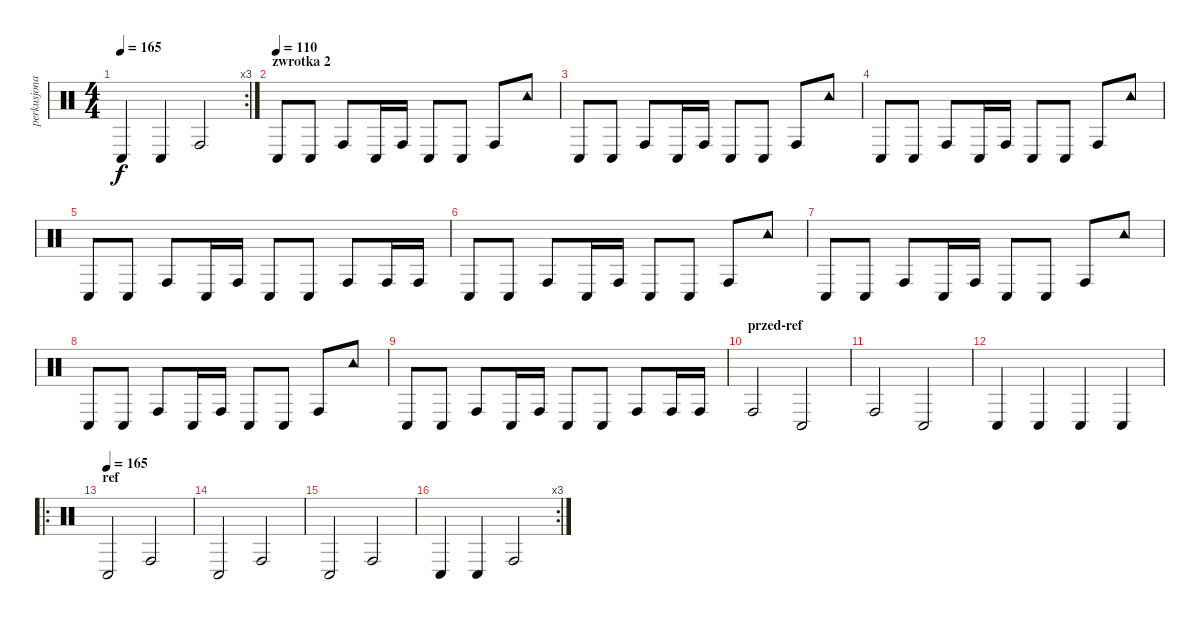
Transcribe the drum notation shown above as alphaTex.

\track ("perkusjonalia" "perkusjona") {instrument percussion}
\staff {score}
\articulation defaults
\rc 3
\ts (4 4)
\tempo 165
\clef neutral
\ks c "Conga low (hit)".4{dy f} "Conga low (hit)".4 "Conga high (hit)".2
|
\section ("" "zwrotka 2")
\tempo (110)
"Conga low (hit)".8 "Conga low (hit)".8 "Conga high (hit)".8 "Conga low (hit)".16 "Conga high (hit)".16 "Conga low (hit)".8 "Conga low (hit)".8 "Conga high (hit)".8 "Tambourine (hit)".8 |
"Conga low (hit)".8 "Conga low (hit)".8 "Conga high (hit)".8 "Conga low (hit)".16 "Conga high (hit)".16 "Conga low (hit)".8 "Conga low (hit)".8 "Conga high (hit)".8 "Tambourine (hit)".8 |
"Conga low (hit)".8 "Conga low (hit)".8 "Conga high (hit)".8 "Conga low (hit)".16 "Conga high (hit)".16 "Conga low (hit)".8 "Conga low (hit)".8 "Conga high (hit)".8 "Tambourine (hit)".8 |
"Conga low (hit)".8 "Conga low (hit)".8 "Conga high (hit)".8 "Conga low (hit)".16 "Conga high (hit)".16 "Conga low (hit)".8 "Conga low (hit)".8 "Conga high (hit)".8 "Conga high (hit)".16 "Conga high (hit)".16 |
"Conga low (hit)".8 "Conga low (hit)".8 "Conga high (hit)".8 "Conga low (hit)".16 "Conga high (hit)".16 "Conga low (hit)".8 "Conga low (hit)".8 "Conga high (hit)".8 "Tambourine (hit)".8 |
"Conga low (hit)".8 "Conga low (hit)".8 "Conga high (hit)".8 "Conga low (hit)".16 "Conga high (hit)".16 "Conga low (hit)".8 "Conga low (hit)".8 "Conga high (hit)".8 "Tambourine (hit)".8 |
"Conga low (hit)".8 "Conga low (hit)".8 "Conga high (hit)".8 "Conga low (hit)".16 "Conga high (hit)".16 "Conga low (hit)".8 "Conga low (hit)".8 "Conga high (hit)".8 "Tambourine (hit)".8 |
"Conga low (hit)".8 "Conga low (hit)".8 "Conga high (hit)".8 "Conga low (hit)".16 "Conga high (hit)".16 "Conga low (hit)".8 "Conga low (hit)".8 "Conga high (hit)".8 "Conga high (hit)".16 "Conga high (hit)".16 |
\section ("" "przed-ref")
"Conga high (hit)".2 "Conga low (hit)".2 |
"Conga high (hit)".2 "Conga low (hit)".2 |
"Conga low (hit)".4 "Conga low (hit)".4 "Conga low (hit)".4 "Conga low (hit)".4 |
\ro
\section ("" "ref")
\tempo (165)
"Conga low (hit)".2 "Conga high (hit)".2 |
"Conga low (hit)".2 "Conga high (hit)".2 |
"Conga low (hit)".2 "Conga high (hit)".2 |
\rc 3 "Conga low (hit)".4 "Conga low (hit)".4 "Conga high (hit)".2
